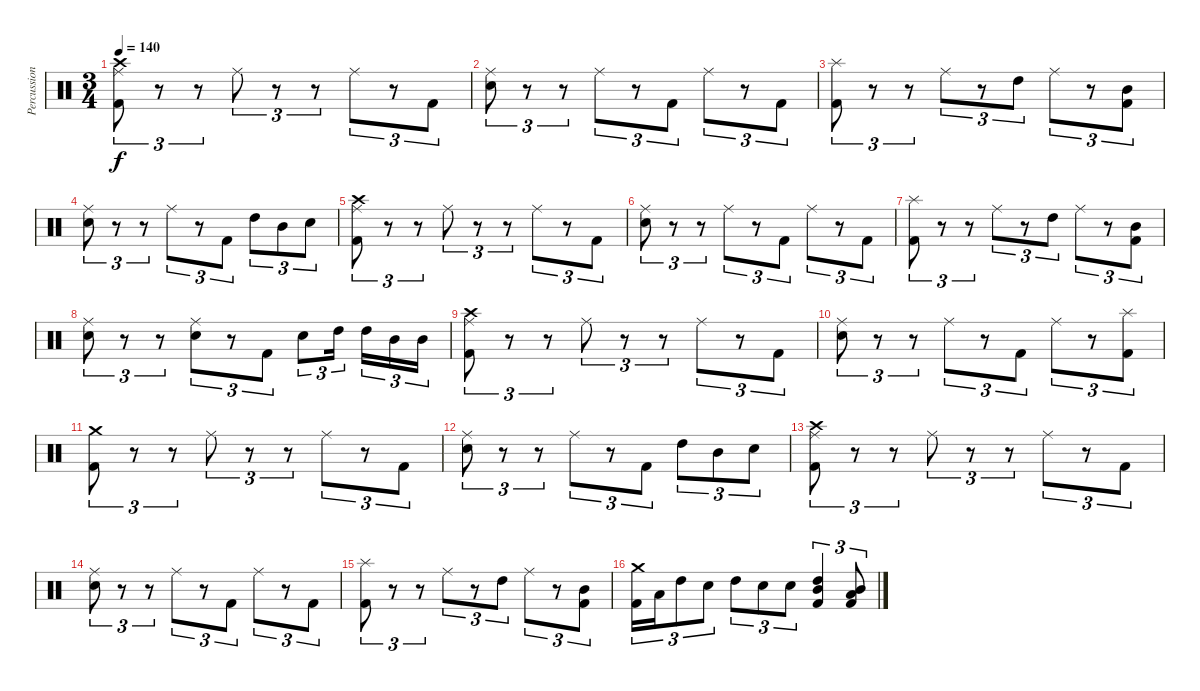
\track ("Percussion" "Percussion") {instrument percussion}
\staff {score}
\articulation defaults
\ts (3 4)
\tempo 140
\clef neutral
\ks c
("Crash high (hit)" "Ride (middle)" "Kick (hit) 2").8{tu (3 2) dy f} r.8{tu (3 2)} r.8{tu (3 2)} "Ride (middle)".8{tu (3 2)} r.8{tu (3 2)} r.8{tu (3 2)} "Ride (middle)".8{tu (3 2)} r.8{tu (3 2)} "Kick (hit) 2".8{tu (3 2)} |
("Ride (middle)" "Electric Snare (hit)").8{tu (3 2)} r.8{tu (3 2)} r.8{tu (3 2)} "Ride (middle)".8{tu (3 2)} r.8{tu (3 2)} "Kick (hit) 2".8{tu (3 2)} "Ride (middle)".8{tu (3 2)} r.8{tu (3 2)} "Kick (hit) 2".8{tu (3 2)} |
("Splash (hit)" "Kick (hit) 2").8{tu (3 2)} r.8{tu (3 2)} r.8{tu (3 2)} "Ride (middle)".8{tu (3 2)} r.8{tu (3 2)} "High Tom (hit)".8{tu (3 2)} "Ride (middle)".8{tu (3 2)} r.8{tu (3 2)} ("Mid Tom (hit)" "Kick (hit) 2").8{tu (3 2)} |
("Ride (middle)" "Electric Snare (hit)").8{tu (3 2)} r.8{tu (3 2)} r.8{tu (3 2)} "Ride (middle)".8{tu (3 2)} r.8{tu (3 2)} "Kick (hit) 2".8{tu (3 2)} "High Tom (hit)".8{tu (3 2)} "Mid Tom (hit)".8{tu (3 2)} "Electric Snare (hit)".8{tu (3 2)} |
("Crash high (hit)" "Ride (middle)" "Kick (hit) 2").8{tu (3 2)} r.8{tu (3 2)} r.8{tu (3 2)} "Ride (middle)".8{tu (3 2)} r.8{tu (3 2)} r.8{tu (3 2)} "Ride (middle)".8{tu (3 2)} r.8{tu (3 2)} "Kick (hit) 2".8{tu (3 2)} |
("Ride (middle)" "Electric Snare (hit)").8{tu (3 2)} r.8{tu (3 2)} r.8{tu (3 2)} "Ride (middle)".8{tu (3 2)} r.8{tu (3 2)} "Kick (hit) 2".8{tu (3 2)} "Ride (middle)".8{tu (3 2)} r.8{tu (3 2)} "Kick (hit) 2".8{tu (3 2)} |
("Splash (hit)" "Kick (hit) 2").8{tu (3 2)} r.8{tu (3 2)} r.8{tu (3 2)} "Ride (middle)".8{tu (3 2)} r.8{tu (3 2)} "High Tom (hit)".8{tu (3 2)} "Ride (middle)".8{tu (3 2)} r.8{tu (3 2)} ("Mid Tom (hit)" "Kick (hit) 2").8{tu (3 2)} |
("Ride (middle)" "Electric Snare (hit)").8{tu (3 2)} r.8{tu (3 2)} r.8{tu (3 2)} ("Ride (middle)" "Electric Snare (hit)").8{tu (3 2)} r.8{tu (3 2)} "Kick (hit) 2".8{tu (3 2)} "Electric Snare (hit)".8{tu (3 2)} "High Tom (hit)".16{tu (3 2) beam splitsecondary} "High Tom (hit)".16{tu (3 2)} "Mid Tom (hit)".16{tu (3 2)} "Mid Tom (hit)".16{tu (3 2)} |
("Crash high (hit)" "Ride (middle)" "Kick (hit) 2").8{tu (3 2)} r.8{tu (3 2)} r.8{tu (3 2)} "Ride (middle)".8{tu (3 2)} r.8{tu (3 2)} r.8{tu (3 2)} "Ride (middle)".8{tu (3 2)} r.8{tu (3 2)} "Kick (hit) 2".8{tu (3 2)} |
("Ride (middle)" "Electric Snare (hit)").8{tu (3 2)} r.8{tu (3 2)} r.8{tu (3 2)} "Ride (middle)".8{tu (3 2)} r.8{tu (3 2)} "Kick (hit) 2".8{tu (3 2)} "Ride (middle)".8{tu (3 2)} r.8{tu (3 2)} ("Splash (hit)" "Kick (hit) 2").8{tu (3 2)} |
("Crash medium (hit)" "Kick (hit) 2").8{tu (3 2)} r.8{tu (3 2)} r.8{tu (3 2)} "Ride (middle)".8{tu (3 2)} r.8{tu (3 2)} r.8{tu (3 2)} "Ride (middle)".8{tu (3 2)} r.8{tu (3 2)} "Kick (hit) 2".8{tu (3 2)} |
("Ride (middle)" "Electric Snare (hit)").8{tu (3 2)} r.8{tu (3 2)} r.8{tu (3 2)} "Ride (middle)".8{tu (3 2)} r.8{tu (3 2)} "Kick (hit) 2".8{tu (3 2)} "High Tom (hit)".8{tu (3 2)} "Mid Tom (hit)".8{tu (3 2)} "Electric Snare (hit)".8{tu (3 2)} |
("Crash high (hit)" "Ride (middle)" "Kick (hit) 2").8{tu (3 2)} r.8{tu (3 2)} r.8{tu (3 2)} "Ride (middle)".8{tu (3 2)} r.8{tu (3 2)} r.8{tu (3 2)} "Ride (middle)".8{tu (3 2)} r.8{tu (3 2)} "Kick (hit) 2".8{tu (3 2)} |
("Ride (middle)" "Electric Snare (hit)").8{tu (3 2)} r.8{tu (3 2)} r.8{tu (3 2)} "Ride (middle)".8{tu (3 2)} r.8{tu (3 2)} "Kick (hit) 2".8{tu (3 2)} "Ride (middle)".8{tu (3 2)} r.8{tu (3 2)} "Kick (hit) 2".8{tu (3 2)} |
("Splash (hit)" "Kick (hit) 2").8{tu (3 2)} r.8{tu (3 2)} r.8{tu (3 2)} "Ride (middle)".8{tu (3 2)} r.8{tu (3 2)} "High Tom (hit)".8{tu (3 2)} "Ride (middle)".8{tu (3 2)} r.8{tu (3 2)} ("Mid Tom (hit)" "Kick (hit) 2").8{tu (3 2)} |
("Crash medium (hit)" "Kick (hit) 2").16{tu (3 2)} "Low Tom (hit)".16{tu (3 2)} "High Tom (hit)".8{tu (3 2)} "Electric Snare (hit)".8{tu (3 2)} "High Tom (hit)".8{tu (3 2)} "Electric Snare (hit)".8{tu (3 2)} "Electric Snare (hit)".8{tu (3 2)} ("High Tom (hit)" "Mid Tom (hit)" "Kick (hit) 2").4{tu (3 2)} ("Low Tom (hit)" "Mid Tom (hit)" "Kick (hit) 2").8{tu (3 2)}
